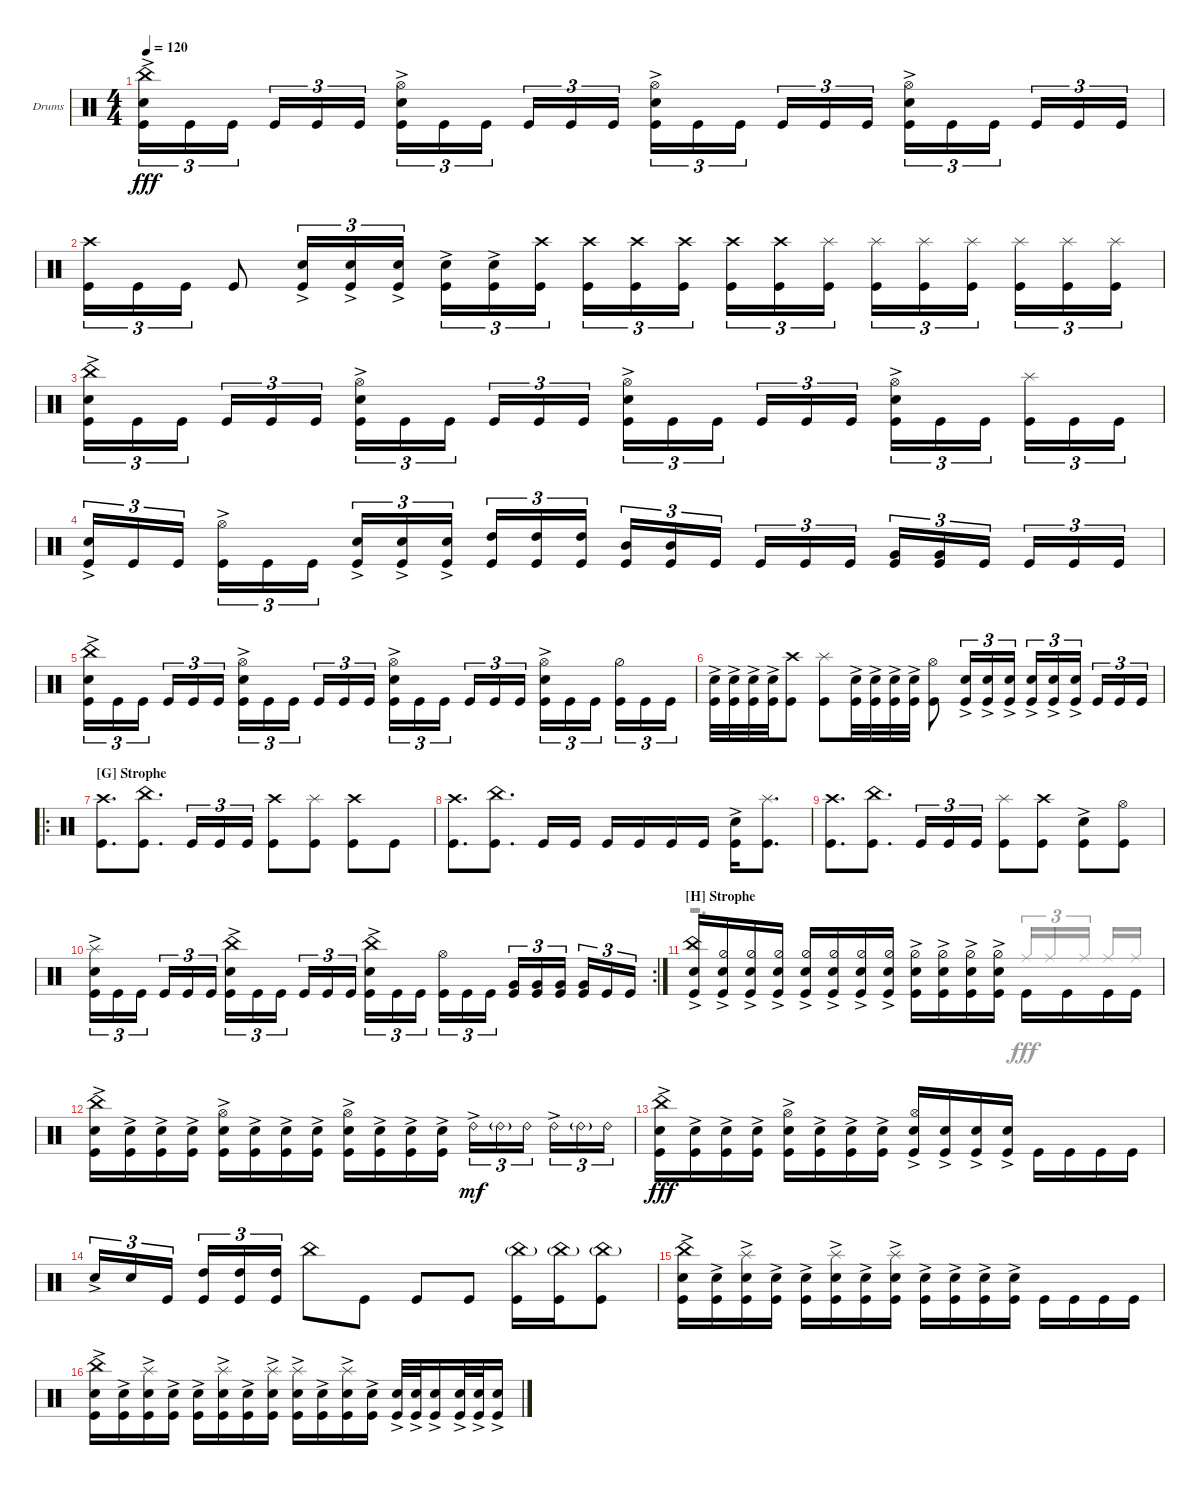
\defaultSystemsLayout 4
\bracketExtendMode groupsimilarinstruments
\firstSystemTrackNameOrientation horizontal
\otherSystemsTrackNameOrientation horizontal
\track ("Drumkit" "Drums") {instrument percussion}
\staff {score}
\articulation defaults
\voice
\ts (4 4)
\tempo 120
\clef neutral
\ks c
("Kick (hit)" "Snare (hit) 2"{ac} "China (hit)").16{tu (3 2) dy fff} "Kick (hit)".16{tu (3 2)} "Kick (hit)".16{tu (3 2)} "Kick (hit)".16{tu (3 2)} "Kick (hit)".16{tu (3 2)} "Kick (hit)".16{tu (3 2)} ("Kick (hit)" "Hi-Hat (open)" "Snare (hit) 2"{ac}).16{tu (3 2)} "Kick (hit)".16{tu (3 2)} "Kick (hit)".16{tu (3 2)} "Kick (hit)".16{tu (3 2)} "Kick (hit)".16{tu (3 2)} "Kick (hit)".16{tu (3 2)} ("Kick (hit)" "Hi-Hat (open)"{ac} "Snare (hit) 2"{ac}).16{tu (3 2)} "Kick (hit)".16{tu (3 2)} "Kick (hit)".16{tu (3 2)} "Kick (hit)".16{tu (3 2)} "Kick (hit)".16{tu (3 2)} "Kick (hit)".16{tu (3 2)} ("Kick (hit)" "Hi-Hat (open)" "Snare (hit) 2"{ac}).16{tu (3 2)} "Kick (hit)".16{tu (3 2)} "Kick (hit)".16{tu (3 2)} "Kick (hit)".16{tu (3 2)} "Kick (hit)".16{tu (3 2)} "Kick (hit)".16{tu (3 2)} |
("Kick (hit)" "Crash high (hit)").16{tu (3 2)} "Kick (hit)".16{tu (3 2)} "Kick (hit)".16{tu (3 2)} "Kick (hit)".8 ("Kick (hit)" "Snare (hit) 2"{ac}).16{tu (3 2)} ("Kick (hit)" "Snare (hit) 2"{ac}).16{tu (3 2)} ("Kick (hit)" "Snare (hit) 2"{ac}).16{tu (3 2)} ("Kick (hit)" "Snare (hit) 2"{ac}).16{tu (3 2)} ("Kick (hit)" "Snare (hit) 2"{ac}).16{tu (3 2)} ("Kick (hit)" "Crash high (hit)").16{tu (3 2)} ("Kick (hit)" "Crash high (hit)").16{tu (3 2)} ("Kick (hit)" "Crash high (hit)").16{tu (3 2)} ("Kick (hit)" "Crash high (hit)").16{tu (3 2)} ("Kick (hit)" "Crash high (hit)").16{tu (3 2)} ("Kick (hit)" "Crash high (hit)").16{tu (3 2)} ("Kick (hit)" "Splash (hit)").16{tu (3 2)} ("Kick (hit)" "Splash (hit)").16{tu (3 2)} ("Kick (hit)" "Splash (hit)").16{tu (3 2)} ("Kick (hit)" "Splash (hit)").16{tu (3 2)} ("Kick (hit)" "Splash (hit)").16{tu (3 2)} ("Kick (hit)" "Splash (hit)").16{tu (3 2)} ("Kick (hit)" "Splash (hit)").16{tu (3 2)} |
("Kick (hit)" "Snare (hit) 2"{ac} "China (hit)").16{tu (3 2)} "Kick (hit)".16{tu (3 2)} "Kick (hit)".16{tu (3 2)} "Kick (hit)".16{tu (3 2)} "Kick (hit)".16{tu (3 2)} "Kick (hit)".16{tu (3 2)} ("Kick (hit)" "Hi-Hat (open)" "Snare (hit) 2"{ac}).16{tu (3 2)} "Kick (hit)".16{tu (3 2)} "Kick (hit)".16{tu (3 2)} "Kick (hit)".16{tu (3 2)} "Kick (hit)".16{tu (3 2)} "Kick (hit)".16{tu (3 2)} ("Kick (hit)" "Hi-Hat (open)" "Snare (hit) 2"{ac}).16{tu (3 2)} "Kick (hit)".16{tu (3 2)} "Kick (hit)".16{tu (3 2)} "Kick (hit)".16{tu (3 2)} "Kick (hit)".16{tu (3 2)} "Kick (hit)".16{tu (3 2)} ("Kick (hit)" "Hi-Hat (open)" "Snare (hit) 2"{ac}).16{tu (3 2)} "Kick (hit)".16{tu (3 2)} "Kick (hit)".16{tu (3 2)} ("Kick (hit)" "Splash (hit)").16{tu (3 2)} "Kick (hit)".16{tu (3 2)} "Kick (hit)".16{tu (3 2)} |
("Kick (hit)" "Snare (hit) 2"{ac}).16{tu (3 2)} "Kick (hit)".16{tu (3 2)} "Kick (hit)".16{tu (3 2)} ("Kick (hit)" "Hi-Hat (open)"{ac}).16{tu (3 2)} "Kick (hit)".16{tu (3 2)} "Kick (hit)".16{tu (3 2)} ("Kick (hit)" "Snare (hit) 2"{ac}).16{tu (3 2)} ("Kick (hit)" "Snare (hit) 2"{ac}).16{tu (3 2)} ("Kick (hit)" "Snare (hit) 2"{ac}).16{tu (3 2)} ("High Tom (hit)" "Kick (hit)").16{tu (3 2)} ("High Tom (hit)" "Kick (hit)").16{tu (3 2)} ("High Tom (hit)" "Kick (hit)").16{tu (3 2)} ("Kick (hit)" "Mid Tom (hit)").16{tu (3 2)} ("Kick (hit)" "Mid Tom (hit)").16{tu (3 2)} "Kick (hit)".16{tu (3 2)} "Kick (hit)".16{tu (3 2)} "Kick (hit)".16{tu (3 2)} "Kick (hit)".16{tu (3 2)} ("Kick (hit)" "Very Low Tom (hit)").16{tu (3 2)} ("Kick (hit)" "Very Low Tom (hit)").16{tu (3 2)} "Kick (hit)".16{tu (3 2)} "Kick (hit)".16{tu (3 2)} "Kick (hit)".16{tu (3 2)} "Kick (hit)".16{tu (3 2)} |
("Kick (hit)" "Snare (hit) 2"{ac} "China (hit)").16{tu (3 2)} "Kick (hit)".16{tu (3 2)} "Kick (hit)".16{tu (3 2)} "Kick (hit)".16{tu (3 2)} "Kick (hit)".16{tu (3 2)} "Kick (hit)".16{tu (3 2)} ("Kick (hit)" "Hi-Hat (open)" "Snare (hit) 2"{ac}).16{tu (3 2)} "Kick (hit)".16{tu (3 2)} "Kick (hit)".16{tu (3 2)} "Kick (hit)".16{tu (3 2)} "Kick (hit)".16{tu (3 2)} "Kick (hit)".16{tu (3 2)} ("Kick (hit)" "Hi-Hat (open)" "Snare (hit) 2"{ac}).16{tu (3 2)} "Kick (hit)".16{tu (3 2)} "Kick (hit)".16{tu (3 2)} "Kick (hit)".16{tu (3 2)} "Kick (hit)".16{tu (3 2)} "Kick (hit)".16{tu (3 2)} ("Kick (hit)" "Hi-Hat (open)" "Snare (hit) 2"{ac}).16{tu (3 2)} "Kick (hit)".16{tu (3 2)} "Kick (hit)".16{tu (3 2)} ("Kick (hit)" "Hi-Hat (half)").16{tu (3 2)} "Kick (hit)".16{tu (3 2)} "Kick (hit)".16{tu (3 2)} |
("Snare (hit) 2"{ac} "Kick (hit)").32 ("Snare (hit) 2"{ac} "Kick (hit)").32 ("Snare (hit) 2"{ac} "Kick (hit)").32 ("Snare (hit) 2"{ac} "Kick (hit)").32 ("Kick (hit)" "Crash high (hit)").8 ("Kick (hit)" "Splash (hit)").8 ("Snare (hit) 2"{ac} "Kick (hit)").32 ("Snare (hit) 2"{ac} "Kick (hit)").32 ("Snare (hit) 2"{ac} "Kick (hit)").32 ("Snare (hit) 2"{ac} "Kick (hit)").32 ("Kick (hit)" "Hi-Hat (open)").8 ("Kick (hit)" "Snare (hit) 2"{ac}).16{tu (3 2)} ("Kick (hit)" "Snare (hit) 2"{ac}).16{tu (3 2)} ("Kick (hit)" "Snare (hit) 2"{ac}).16{tu (3 2)} ("Kick (hit)" "Snare (hit) 2"{ac}).16{tu (3 2)} ("Kick (hit)" "Snare (hit) 2"{ac}).16{tu (3 2)} ("Kick (hit)" "Snare (hit) 2"{ac}).16{tu (3 2)} "Kick (hit)".16{tu (3 2)} "Kick (hit)".16{tu (3 2)} "Kick (hit)".16{tu (3 2)} |
\ro
\section ("G" "Strophe")
("Kick (hit)" "Crash high (hit)").8{d} ("Kick (hit)" "China (hit)").8{d} "Kick (hit)".16{tu (3 2)} "Kick (hit)".16{tu (3 2)} "Kick (hit)".16{tu (3 2)} ("Kick (hit)" "Crash high (hit)").8 ("Kick (hit)" "Splash (hit)").8 ("Kick (hit)" "Crash high (hit)").8 "Kick (hit)".8 |
("Kick (hit)" "Crash high (hit)").8{d} ("Kick (hit)" "China (hit)").8{d} "Kick (hit)".16 "Kick (hit)".16 "Kick (hit)".16 "Kick (hit)".16 "Kick (hit)".16 "Kick (hit)".16 ("Kick (hit)" "Snare (hit) 2"{ac}).16 ("Kick (hit)" "Splash (hit)").8{d} |
("Kick (hit)" "Crash high (hit)").8{d} ("Kick (hit)" "China (hit)").8{d} "Kick (hit)".16{tu (3 2)} "Kick (hit)".16{tu (3 2)} "Kick (hit)".16{tu (3 2)} ("Kick (hit)" "Splash (hit)").8 ("Kick (hit)" "Crash high (hit)").8 ("Kick (hit)" "Snare (hit) 2"{ac}).8 ("Kick (hit)" "Hi-Hat (open)").8 |
\rc 2
("Kick (hit)" "Snare (hit) 2"{ac} "Splash (hit)"{ac}).16{tu (3 2)} "Kick (hit)".16{tu (3 2)} "Kick (hit)".16{tu (3 2)} "Kick (hit)".16{tu (3 2)} "Kick (hit)".16{tu (3 2)} "Kick (hit)".16{tu (3 2)} ("Kick (hit)" "Snare (hit) 2"{ac} "China (hit)").16{tu (3 2)} "Kick (hit)".16{tu (3 2)} "Kick (hit)".16{tu (3 2)} "Kick (hit)".16{tu (3 2)} "Kick (hit)".16{tu (3 2)} "Kick (hit)".16{tu (3 2)} ("Kick (hit)" "Snare (hit) 2"{ac} "China (hit)").16{tu (3 2)} "Kick (hit)".16{tu (3 2)} "Kick (hit)".16{tu (3 2)} ("Kick (hit)" "Hi-Hat (open)").16{tu (3 2)} "Kick (hit)".16{tu (3 2)} "Kick (hit)".16{tu (3 2)} ("Kick (hit)" "Very Low Tom (hit)").16{tu (3 2)} ("Kick (hit)" "Very Low Tom (hit)").16{tu (3 2)} ("Kick (hit)" "Very Low Tom (hit)").16{tu (3 2)} ("Kick (hit)" "Very Low Tom (hit)").16{tu (3 2)} "Kick (hit)".16{tu (3 2)} "Kick (hit)".16{tu (3 2)} |
\section ("H" "Strophe")
("Kick (hit)" "Snare (hit) 2"{ac} "China (hit)").16 ("Kick (hit)" "Snare (hit) 2"{ac} "Hi-Hat (half)").16 ("Kick (hit)" "Snare (hit) 2"{ac} "Hi-Hat (half)").16 ("Kick (hit)" "Snare (hit) 2"{ac} "Hi-Hat (half)").16 ("Kick (hit)" "Snare (hit) 2"{ac} "Hi-Hat (half)").16 ("Kick (hit)" "Snare (hit) 2"{ac} "Hi-Hat (half)").16 ("Kick (hit)" "Snare (hit) 2"{ac} "Hi-Hat (half)").16 ("Kick (hit)" "Snare (hit) 2"{ac} "Hi-Hat (half)").16 ("Kick (hit)" "Snare (hit) 2"{ac} "Hi-Hat (half)").16 ("Kick (hit)" "Snare (hit) 2"{ac} "Hi-Hat (half)").16 ("Kick (hit)" "Snare (hit) 2"{ac} "Hi-Hat (half)").16 ("Kick (hit)" "Snare (hit) 2"{ac} "Hi-Hat (half)").16 "Kick (hit)".16{beam invert} "Kick (hit)".16 "Kick (hit)".16 "Kick (hit)".16 |
("Kick (hit)" "Snare (hit) 2"{ac} "China (hit)").16 ("Kick (hit)" "Snare (hit) 2"{ac}).16 ("Kick (hit)" "Snare (hit) 2"{ac}).16 ("Kick (hit)" "Snare (hit) 2"{ac}).16 ("Kick (hit)" "Snare (hit) 2"{ac} "Hi-Hat (open)").16 ("Kick (hit)" "Snare (hit) 2"{ac}).16 ("Kick (hit)" "Snare (hit) 2"{ac}).16 ("Kick (hit)" "Snare (hit) 2"{ac}).16 ("Kick (hit)" "Snare (hit) 2"{ac} "Hi-Hat (open)").16 ("Kick (hit)" "Snare (hit) 2"{ac}).16 ("Kick (hit)" "Snare (hit) 2"{ac}).16 ("Kick (hit)" "Snare (hit) 2"{ac}).16 "Ride (bell) 2"{ac}.16{tu (3 2) dy mf} "Ride (bell) 2"{g}.16{tu (3 2)} "Ride (bell) 2".16{tu (3 2)} "Ride (bell) 2"{ac}.16{tu (3 2)} "Ride (bell) 2"{g}.16{tu (3 2)} "Ride (bell) 2".16{tu (3 2)} |
("Kick (hit)" "Snare (hit) 2"{ac} "China (hit)").16{dy fff} ("Kick (hit)" "Snare (hit) 2"{ac}).16 ("Kick (hit)" "Snare (hit) 2"{ac}).16 ("Kick (hit)" "Snare (hit) 2"{ac}).16 ("Kick (hit)" "Snare (hit) 2"{ac} "Hi-Hat (open)").16 ("Kick (hit)" "Snare (hit) 2"{ac}).16 ("Kick (hit)" "Snare (hit) 2"{ac}).16 ("Kick (hit)" "Snare (hit) 2"{ac}).16 ("Kick (hit)" "Snare (hit) 2"{ac} "Hi-Hat (open)").16 ("Kick (hit)" "Snare (hit) 2"{ac}).16 ("Kick (hit)" "Snare (hit) 2"{ac}).16 ("Kick (hit)" "Snare (hit) 2"{ac}).16 "Kick (hit)".16{beam invert} "Kick (hit)".16 "Kick (hit)".16 "Kick (hit)".16 |
"Snare (hit) 2"{ac}.16{tu (3 2)} "Snare (hit) 2".16{tu (3 2)} "Kick (hit)".16{tu (3 2)} ("Kick (hit)" "High Tom (hit)").16{tu (3 2)} ("Kick (hit)" "High Tom (hit)").16{tu (3 2)} ("Kick (hit)" "High Tom (hit)").16{tu (3 2)} "China (hit)".8 "Kick (hit)".8 "Kick (hit)".8 "Kick (hit)".8 ("Kick (hit)" "China (hit)"{g}).16 ("Kick (hit)" "China (hit)"{g}).16 ("Kick (hit)" "China (hit)"{g}).8 |
("Kick (hit)" "Snare (hit) 2"{ac} "China (hit)").16 ("Kick (hit)" "Snare (hit) 2"{ac}).16 ("Kick (hit)" "Snare (hit) 2"{ac} "Splash (hit)").16 ("Kick (hit)" "Snare (hit) 2"{ac}).16 ("Kick (hit)" "Snare (hit) 2"{ac}).16 ("Kick (hit)" "Snare (hit) 2"{ac} "Splash (hit)").16 ("Kick (hit)" "Snare (hit) 2"{ac}).16 ("Kick (hit)" "Snare (hit) 2"{ac} "Splash (hit)").16 ("Kick (hit)" "Snare (hit) 2"{ac}).16 ("Kick (hit)" "Snare (hit) 2"{ac}).16 ("Kick (hit)" "Snare (hit) 2"{ac}).16 ("Kick (hit)" "Snare (hit) 2"{ac}).16 "Kick (hit)".16{beam invert} "Kick (hit)".16 "Kick (hit)".16 "Kick (hit)".16 |
("Kick (hit)" "Snare (hit) 2"{ac} "China (hit)").16 ("Kick (hit)" "Snare (hit) 2"{ac}).16 ("Kick (hit)" "Snare (hit) 2"{ac} "Splash (hit)").16 ("Kick (hit)" "Snare (hit) 2"{ac}).16 ("Kick (hit)" "Snare (hit) 2"{ac}).16 ("Kick (hit)" "Snare (hit) 2"{ac} "Splash (hit)").16 ("Kick (hit)" "Snare (hit) 2"{ac}).16 ("Kick (hit)" "Snare (hit) 2"{ac} "Splash (hit)").16 ("Kick (hit)" "Snare (hit) 2"{ac} "Splash (hit)").16 ("Kick (hit)" "Snare (hit) 2"{ac}).16 ("Kick (hit)" "Snare (hit) 2"{ac} "Splash (hit)").16 ("Kick (hit)" "Snare (hit) 2"{ac}).16 ("Kick (hit)" "Snare (hit) 2"{ac}).32 ("Kick (hit)" "Snare (hit) 2"{ac}).32 ("Kick (hit)" "Snare (hit) 2"{ac}).16 ("Kick (hit)" "Snare (hit) 2"{ac}).32 ("Kick (hit)" "Snare (hit) 2"{ac}).32 ("Kick (hit)" "Snare (hit) 2"{ac}).16
\voice
\clef neutral
\ottava regular
\simile none
\ks c
|
|
|
|
|
|
|
|
|
|
r.2{d} "Ride (middle)".16{tu (3 2) beam invert} "Ride (middle)".16{tu (3 2)} "Ride (middle)".16{tu (3 2)} "Ride (middle)".16{beam invert} "Ride (middle)".16 |
|
|
|
|
